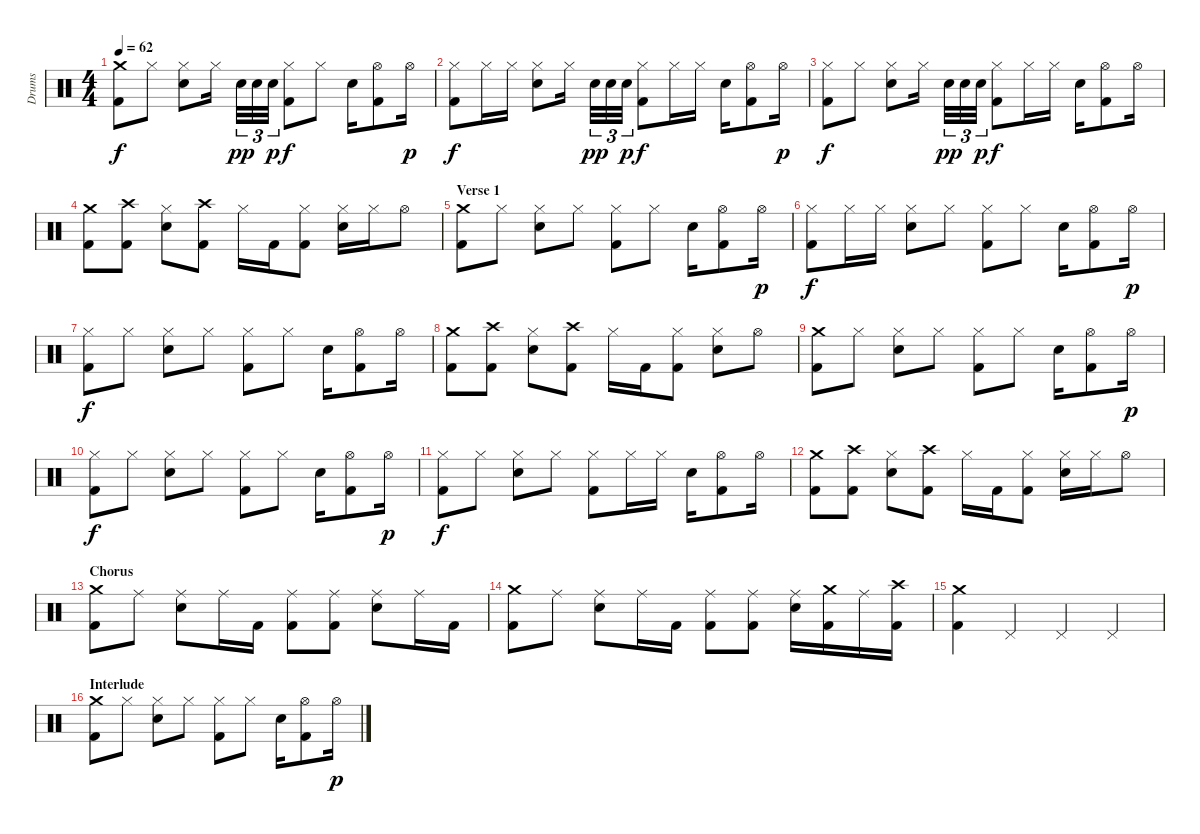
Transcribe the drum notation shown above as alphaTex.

\track ("Drums" "Drums") {instrument percussion}
\staff {score}
\articulation defaults
\ts (4 4)
\tempo 62
\clef neutral
\ks c
("Crash medium (hit)" "Kick (hit) 2").8{dy f} "Hi-Hat (closed)".8 ("Hi-Hat (closed)" "Electric Snare (hit)").8 "Hi-Hat (closed)".16 "Electric Snare (hit)".32{tu (3 2) dy pp} "Electric Snare (hit)".32{tu (3 2)} "Electric Snare (hit)".32{tu (3 2) dy p} ("Hi-Hat (closed)" "Kick (hit) 2").8{dy f} "Hi-Hat (closed)".8 "Electric Snare (hit)".16 ("Hi-Hat (open)" "Kick (hit) 2").8 "Hi-Hat (open)".16{dy p} |
("Hi-Hat (closed)" "Kick (hit) 2").8{dy f} "Hi-Hat (closed)".16 "Hi-Hat (closed)".16 ("Hi-Hat (closed)" "Electric Snare (hit)").8 "Hi-Hat (closed)".16 "Electric Snare (hit)".32{tu (3 2) dy pp} "Electric Snare (hit)".32{tu (3 2)} "Electric Snare (hit)".32{tu (3 2) dy p} ("Hi-Hat (closed)" "Kick (hit) 2").8{dy f} "Hi-Hat (closed)".16 "Hi-Hat (closed)".16 "Electric Snare (hit)".16 ("Hi-Hat (open)" "Kick (hit) 2").8 "Hi-Hat (open)".16{dy p} |
("Hi-Hat (closed)" "Kick (hit) 2").8{dy f} "Hi-Hat (closed)".8 ("Hi-Hat (closed)" "Electric Snare (hit)").8 "Hi-Hat (closed)".16 "Electric Snare (hit)".32{tu (3 2) dy pp} "Electric Snare (hit)".32{tu (3 2)} "Electric Snare (hit)".32{tu (3 2) dy p} ("Hi-Hat (closed)" "Kick (hit) 2").8{dy f} "Hi-Hat (closed)".16 "Hi-Hat (closed)".16 "Electric Snare (hit)".16 ("Hi-Hat (open)" "Kick (hit) 2").8 "Hi-Hat (open)".16 |
("Crash medium (hit)" "Kick (hit) 2").8 ("Crash high (hit)" "Kick (hit) 2").8 ("Hi-Hat (closed)" "Electric Snare (hit)").8 ("Crash high (hit)" "Kick (hit) 2").8 "Hi-Hat (closed)".16 "Kick (hit) 2".16 ("Hi-Hat (closed)" "Kick (hit) 2").8 ("Hi-Hat (closed)" "Electric Snare (hit)").16 "Hi-Hat (closed)".16 "Hi-Hat (open)".8 |
\section ("" "Verse 1")
("Crash medium (hit)" "Kick (hit) 2").8 "Hi-Hat (closed)".8 ("Hi-Hat (closed)" "Electric Snare (hit)").8 "Hi-Hat (closed)".8 ("Hi-Hat (closed)" "Kick (hit) 2").8 "Hi-Hat (closed)".8 "Electric Snare (hit)".16 ("Hi-Hat (open)" "Kick (hit) 2").8 "Hi-Hat (open)".16{dy p} |
("Hi-Hat (closed)" "Kick (hit) 2").8{dy f} "Hi-Hat (closed)".16 "Hi-Hat (closed)".16 ("Hi-Hat (closed)" "Electric Snare (hit)").8 "Hi-Hat (closed)".8 ("Hi-Hat (closed)" "Kick (hit) 2").8 "Hi-Hat (closed)".8 "Electric Snare (hit)".16 ("Hi-Hat (open)" "Kick (hit) 2").8 "Hi-Hat (open)".16{dy p} |
("Hi-Hat (closed)" "Kick (hit) 2").8{dy f} "Hi-Hat (closed)".8 ("Hi-Hat (closed)" "Electric Snare (hit)").8 "Hi-Hat (closed)".8 ("Hi-Hat (closed)" "Kick (hit) 2").8 "Hi-Hat (closed)".8 "Electric Snare (hit)".16 ("Hi-Hat (open)" "Kick (hit) 2").8 "Hi-Hat (open)".16 |
("Crash medium (hit)" "Kick (hit) 2").8 ("Crash high (hit)" "Kick (hit) 2").8 ("Hi-Hat (closed)" "Electric Snare (hit)").8 ("Crash high (hit)" "Kick (hit) 2").8 "Hi-Hat (closed)".16 "Kick (hit) 2".16 ("Hi-Hat (closed)" "Kick (hit) 2").8 ("Hi-Hat (closed)" "Electric Snare (hit)").8 "Hi-Hat (open)".8 |
("Crash medium (hit)" "Kick (hit) 2").8 "Hi-Hat (closed)".8 ("Hi-Hat (closed)" "Electric Snare (hit)").8 "Hi-Hat (closed)".8 ("Hi-Hat (closed)" "Kick (hit) 2").8 "Hi-Hat (closed)".8 "Electric Snare (hit)".16 ("Hi-Hat (open)" "Kick (hit) 2").8 "Hi-Hat (open)".16{dy p} |
("Hi-Hat (closed)" "Kick (hit) 2").8{dy f} "Hi-Hat (closed)".8 ("Hi-Hat (closed)" "Electric Snare (hit)").8 "Hi-Hat (closed)".8 ("Hi-Hat (closed)" "Kick (hit) 2").8 "Hi-Hat (closed)".8 "Electric Snare (hit)".16 ("Hi-Hat (open)" "Kick (hit) 2").8 "Hi-Hat (open)".16{dy p} |
("Hi-Hat (closed)" "Kick (hit) 2").8{dy f} "Hi-Hat (closed)".8 ("Hi-Hat (closed)" "Electric Snare (hit)").8 "Hi-Hat (closed)".8 ("Hi-Hat (closed)" "Kick (hit) 2").8 "Hi-Hat (closed)".16 "Hi-Hat (closed)".16 "Electric Snare (hit)".16 ("Hi-Hat (open)" "Kick (hit) 2").8 "Hi-Hat (open)".16 |
("Crash medium (hit)" "Kick (hit) 2").8 ("Crash high (hit)" "Kick (hit) 2").8 ("Hi-Hat (closed)" "Electric Snare (hit)").8 ("Crash high (hit)" "Kick (hit) 2").8 "Hi-Hat (closed)".16 "Kick (hit) 2".16 ("Hi-Hat (closed)" "Kick (hit) 2").8 ("Hi-Hat (closed)" "Electric Snare (hit)").16 "Hi-Hat (closed)".16 "Hi-Hat (open)".8 |
\section ("" "Chorus")
("Crash medium (hit)" "Kick (hit) 2").8 "Ride (middle)".8 ("Ride (middle)" "Electric Snare (hit)").8 "Ride (middle)".16 "Kick (hit) 2".16 ("Ride (middle)" "Kick (hit) 2").8 ("Ride (middle)" "Kick (hit) 2").8 ("Ride (middle)" "Electric Snare (hit)").8 "Ride (middle)".16 "Kick (hit) 2".16 |
("Crash medium (hit)" "Kick (hit) 2").8 "Ride (middle)".8 ("Ride (middle)" "Electric Snare (hit)").8 "Ride (middle)".16 "Kick (hit) 2".16 ("Ride (middle)" "Kick (hit) 2").8 ("Ride (middle)" "Kick (hit) 2").8 ("Ride (middle)" "Electric Snare (hit)").16 ("Crash medium (hit)" "Kick (hit) 2").16 "Ride (middle)".16 ("Crash high (hit)" "Kick (hit) 2").16 |
("Crash medium (hit)" "Kick (hit) 2").4 "Pedal Hi-Hat (hit)".4 "Pedal Hi-Hat (hit)".4 "Pedal Hi-Hat (hit)".4 |
\section ("" "Interlude")
("Crash medium (hit)" "Kick (hit) 2").8 "Hi-Hat (closed)".8 ("Hi-Hat (closed)" "Electric Snare (hit)").8 "Hi-Hat (closed)".8 ("Hi-Hat (closed)" "Kick (hit) 2").8 "Hi-Hat (closed)".8 "Electric Snare (hit)".16 ("Hi-Hat (open)" "Kick (hit) 2").8 "Hi-Hat (open)".16{dy p}
